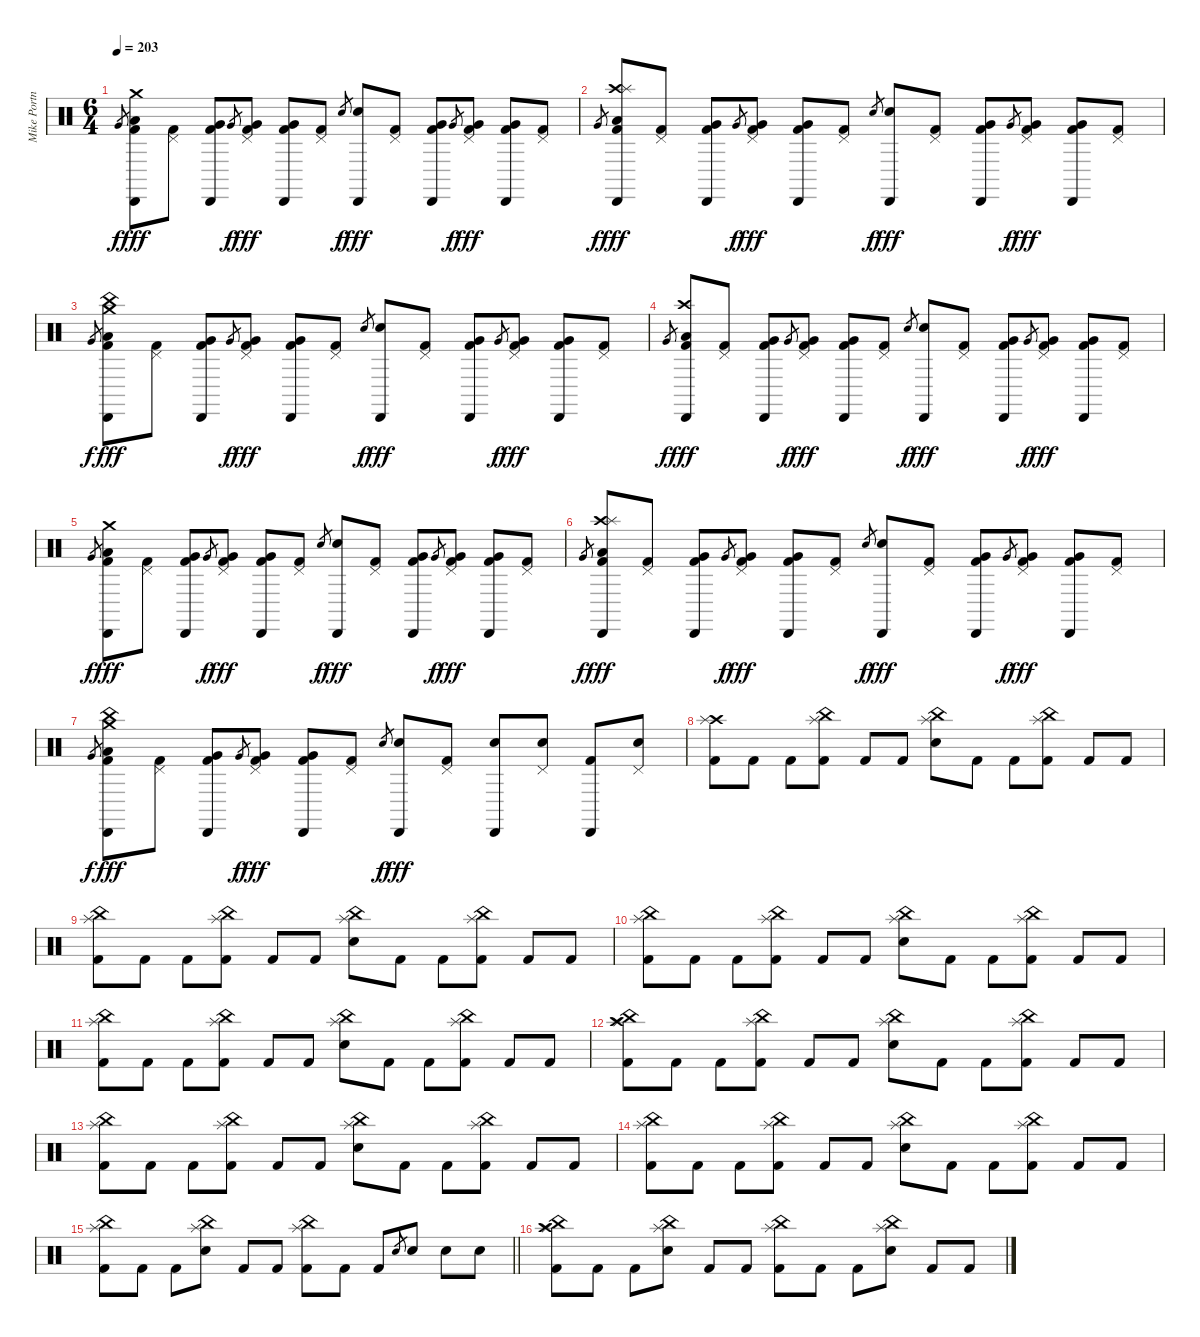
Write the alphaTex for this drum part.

\track ("Mike Portnoy" "Mike Portn") {instrument percussion}
\staff {score}
\articulation defaults
\ts (6 4)
\tempo 203
\clef neutral
\ks c "Very Low Tom (hit)".8{gr dy f}
("Crash medium (hit)" "Cabasa (hit)" "Low Tom (hit)" "Kick (hit) 2").8{dy fff} ("Pedal Hi-Hat (hit)" "Kick (hit) 2").8 ("Cabasa (hit)" "Very Low Tom (hit)" "Kick (hit) 2").8 "Very Low Tom (hit)".8{gr dy f} ("Pedal Hi-Hat (hit)" "Very Low Tom (hit)" "Kick (hit) 2").8{dy fff} ("Cabasa (hit)" "Very Low Tom (hit)" "Kick (hit) 2").8 ("Pedal Hi-Hat (hit)" "Kick (hit) 2").8 "Electric Snare (hit)".8{gr dy f} ("Cabasa (hit)" "Electric Snare (hit)").8{dy fff} ("Pedal Hi-Hat (hit)" "Kick (hit) 2").8 ("Cabasa (hit)" "Very Low Tom (hit)" "Kick (hit) 2").8 "Very Low Tom (hit)".8{gr dy f} ("Pedal Hi-Hat (hit)" "Very Low Tom (hit)" "Kick (hit) 2").8{dy fff} ("Cabasa (hit)" "Very Low Tom (hit)" "Kick (hit) 2").8 ("Pedal Hi-Hat (hit)" "Kick (hit) 2").8 |
"Very Low Tom (hit)".8{gr dy f} ("Crash high (hit)" "Splash (hit)" "Cabasa (hit)" "Low Tom (hit)" "Kick (hit) 2").8{dy fff} ("Pedal Hi-Hat (hit)" "Kick (hit) 2").8 ("Cabasa (hit)" "Very Low Tom (hit)" "Kick (hit) 2").8 "Very Low Tom (hit)".8{gr dy f} ("Pedal Hi-Hat (hit)" "Very Low Tom (hit)" "Kick (hit) 2").8{dy fff} ("Cabasa (hit)" "Very Low Tom (hit)" "Kick (hit) 2").8 ("Pedal Hi-Hat (hit)" "Kick (hit) 2").8 "Electric Snare (hit)".8{gr dy f} ("Cabasa (hit)" "Electric Snare (hit)").8{dy fff} ("Pedal Hi-Hat (hit)" "Kick (hit) 2").8 ("Cabasa (hit)" "Very Low Tom (hit)" "Kick (hit) 2").8 "Very Low Tom (hit)".8{gr dy f} ("Pedal Hi-Hat (hit)" "Very Low Tom (hit)" "Kick (hit) 2").8{dy fff} ("Cabasa (hit)" "Very Low Tom (hit)" "Kick (hit) 2").8 ("Pedal Hi-Hat (hit)" "Kick (hit) 2").8 |
"Very Low Tom (hit)".8{gr dy f} ("China (hit)" "Crash medium (hit)" "Cabasa (hit)" "Low Tom (hit)" "Kick (hit) 2").8{dy fff} ("Pedal Hi-Hat (hit)" "Kick (hit) 2").8 ("Cabasa (hit)" "Very Low Tom (hit)" "Kick (hit) 2").8 "Very Low Tom (hit)".8{gr dy f} ("Pedal Hi-Hat (hit)" "Very Low Tom (hit)" "Kick (hit) 2").8{dy fff} ("Cabasa (hit)" "Very Low Tom (hit)" "Kick (hit) 2").8 ("Pedal Hi-Hat (hit)" "Kick (hit) 2").8 "Electric Snare (hit)".8{gr dy f} ("Cabasa (hit)" "Electric Snare (hit)").8{dy fff} ("Pedal Hi-Hat (hit)" "Kick (hit) 2").8 ("Cabasa (hit)" "Very Low Tom (hit)" "Kick (hit) 2").8 "Very Low Tom (hit)".8{gr dy f} ("Pedal Hi-Hat (hit)" "Very Low Tom (hit)" "Kick (hit) 2").8{dy fff} ("Cabasa (hit)" "Very Low Tom (hit)" "Kick (hit) 2").8 ("Pedal Hi-Hat (hit)" "Kick (hit) 2").8 |
"Very Low Tom (hit)".8{gr dy f} ("Crash high (hit)" "Cabasa (hit)" "Low Tom (hit)" "Kick (hit) 2").8{dy fff} ("Pedal Hi-Hat (hit)" "Kick (hit) 2").8 ("Cabasa (hit)" "Very Low Tom (hit)" "Kick (hit) 2").8 "Very Low Tom (hit)".8{gr dy f} ("Pedal Hi-Hat (hit)" "Very Low Tom (hit)" "Kick (hit) 2").8{dy fff} ("Cabasa (hit)" "Very Low Tom (hit)" "Kick (hit) 2").8 ("Pedal Hi-Hat (hit)" "Kick (hit) 2").8 "Electric Snare (hit)".8{gr dy f} ("Cabasa (hit)" "Electric Snare (hit)").8{dy fff} ("Pedal Hi-Hat (hit)" "Kick (hit) 2").8 ("Cabasa (hit)" "Very Low Tom (hit)" "Kick (hit) 2").8 "Very Low Tom (hit)".8{gr dy f} ("Pedal Hi-Hat (hit)" "Very Low Tom (hit)" "Kick (hit) 2").8{dy fff} ("Cabasa (hit)" "Very Low Tom (hit)" "Kick (hit) 2").8 ("Pedal Hi-Hat (hit)" "Kick (hit) 2").8 |
"Very Low Tom (hit)".8{gr dy f} ("Crash medium (hit)" "Cabasa (hit)" "Low Tom (hit)" "Kick (hit) 2").8{dy fff} ("Pedal Hi-Hat (hit)" "Kick (hit) 2").8 ("Cabasa (hit)" "Very Low Tom (hit)" "Kick (hit) 2").8 "Very Low Tom (hit)".8{gr dy f} ("Pedal Hi-Hat (hit)" "Very Low Tom (hit)" "Kick (hit) 2").8{dy fff} ("Cabasa (hit)" "Very Low Tom (hit)" "Kick (hit) 2").8 ("Pedal Hi-Hat (hit)" "Kick (hit) 2").8 "Electric Snare (hit)".8{gr dy f} ("Cabasa (hit)" "Electric Snare (hit)").8{dy fff} ("Pedal Hi-Hat (hit)" "Kick (hit) 2").8 ("Cabasa (hit)" "Very Low Tom (hit)" "Kick (hit) 2").8 "Very Low Tom (hit)".8{gr dy f} ("Pedal Hi-Hat (hit)" "Very Low Tom (hit)" "Kick (hit) 2").8{dy fff} ("Cabasa (hit)" "Very Low Tom (hit)" "Kick (hit) 2").8 ("Pedal Hi-Hat (hit)" "Kick (hit) 2").8 |
"Very Low Tom (hit)".8{gr dy f} ("Crash high (hit)" "Splash (hit)" "Cabasa (hit)" "Low Tom (hit)" "Kick (hit) 2").8{dy fff} ("Pedal Hi-Hat (hit)" "Kick (hit) 2").8 ("Cabasa (hit)" "Very Low Tom (hit)" "Kick (hit) 2").8 "Very Low Tom (hit)".8{gr dy f} ("Pedal Hi-Hat (hit)" "Very Low Tom (hit)" "Kick (hit) 2").8{dy fff} ("Cabasa (hit)" "Very Low Tom (hit)" "Kick (hit) 2").8 ("Pedal Hi-Hat (hit)" "Kick (hit) 2").8 "Electric Snare (hit)".8{gr dy f} ("Cabasa (hit)" "Electric Snare (hit)").8{dy fff} ("Pedal Hi-Hat (hit)" "Kick (hit) 2").8 ("Cabasa (hit)" "Very Low Tom (hit)" "Kick (hit) 2").8 "Very Low Tom (hit)".8{gr dy f} ("Pedal Hi-Hat (hit)" "Very Low Tom (hit)" "Kick (hit) 2").8{dy fff} ("Cabasa (hit)" "Very Low Tom (hit)" "Kick (hit) 2").8 ("Pedal Hi-Hat (hit)" "Kick (hit) 2").8 |
"Very Low Tom (hit)".8{gr dy f} ("China (hit)" "Crash medium (hit)" "Cabasa (hit)" "Low Tom (hit)" "Kick (hit) 2").8{dy fff} ("Pedal Hi-Hat (hit)" "Kick (hit) 2").8 ("Cabasa (hit)" "Very Low Tom (hit)" "Kick (hit) 2").8 "Very Low Tom (hit)".8{gr dy f} ("Pedal Hi-Hat (hit)" "Very Low Tom (hit)" "Kick (hit) 2").8{dy fff} ("Cabasa (hit)" "Very Low Tom (hit)" "Kick (hit) 2").8 ("Pedal Hi-Hat (hit)" "Kick (hit) 2").8 "Electric Snare (hit)".8{gr dy f} ("Cabasa (hit)" "Electric Snare (hit)").8{dy fff} ("Pedal Hi-Hat (hit)" "Kick (hit) 2").8 ("Cabasa (hit)" "Electric Snare (hit)").8 ("Pedal Hi-Hat (hit)" "Electric Snare (hit)").8 ("Cabasa (hit)" "Kick (hit) 2").8 ("Pedal Hi-Hat (hit)" "Electric Snare (hit)").8 |
("Crash high (hit)" "Splash (hit)" "Kick (hit) 2").8 "Kick (hit) 2".8 "Kick (hit) 2".8 ("China (hit)" "Splash (hit)" "Kick (hit) 2").8 "Kick (hit) 2".8 "Kick (hit) 2".8 ("China (hit)" "Splash (hit)" "Electric Snare (hit)").8 "Kick (hit) 2".8 "Kick (hit) 2".8 ("China (hit)" "Splash (hit)" "Kick (hit) 2").8 "Kick (hit) 2".8 "Kick (hit) 2".8 |
("China (hit)" "Splash (hit)" "Kick (hit) 2").8 "Kick (hit) 2".8 "Kick (hit) 2".8 ("China (hit)" "Splash (hit)" "Kick (hit) 2").8 "Kick (hit) 2".8 "Kick (hit) 2".8 ("China (hit)" "Splash (hit)" "Electric Snare (hit)").8 "Kick (hit) 2".8 "Kick (hit) 2".8 ("China (hit)" "Splash (hit)" "Kick (hit) 2").8 "Kick (hit) 2".8 "Kick (hit) 2".8 |
("China (hit)" "Splash (hit)" "Kick (hit) 2").8 "Kick (hit) 2".8 "Kick (hit) 2".8 ("China (hit)" "Splash (hit)" "Kick (hit) 2").8 "Kick (hit) 2".8 "Kick (hit) 2".8 ("China (hit)" "Splash (hit)" "Electric Snare (hit)").8 "Kick (hit) 2".8 "Kick (hit) 2".8 ("China (hit)" "Splash (hit)" "Kick (hit) 2").8 "Kick (hit) 2".8 "Kick (hit) 2".8 |
("China (hit)" "Splash (hit)" "Kick (hit) 2").8 "Kick (hit) 2".8 "Kick (hit) 2".8 ("China (hit)" "Splash (hit)" "Kick (hit) 2").8 "Kick (hit) 2".8 "Kick (hit) 2".8 ("China (hit)" "Splash (hit)" "Electric Snare (hit)").8 "Kick (hit) 2".8 "Kick (hit) 2".8 ("China (hit)" "Splash (hit)" "Kick (hit) 2").8 "Kick (hit) 2".8 "Kick (hit) 2".8 |
("Crash high (hit)" "China (hit)" "Splash (hit)" "Kick (hit) 2").8 "Kick (hit) 2".8 "Kick (hit) 2".8 ("China (hit)" "Splash (hit)" "Kick (hit) 2").8 "Kick (hit) 2".8 "Kick (hit) 2".8 ("China (hit)" "Splash (hit)" "Electric Snare (hit)").8 "Kick (hit) 2".8 "Kick (hit) 2".8 ("China (hit)" "Splash (hit)" "Kick (hit) 2").8 "Kick (hit) 2".8 "Kick (hit) 2".8 |
("China (hit)" "Splash (hit)" "Kick (hit) 2").8 "Kick (hit) 2".8 "Kick (hit) 2".8 ("China (hit)" "Splash (hit)" "Kick (hit) 2").8 "Kick (hit) 2".8 "Kick (hit) 2".8 ("China (hit)" "Splash (hit)" "Electric Snare (hit)").8 "Kick (hit) 2".8 "Kick (hit) 2".8 ("China (hit)" "Splash (hit)" "Kick (hit) 2").8 "Kick (hit) 2".8 "Kick (hit) 2".8 |
("China (hit)" "Splash (hit)" "Kick (hit) 2").8 "Kick (hit) 2".8 "Kick (hit) 2".8 ("China (hit)" "Splash (hit)" "Kick (hit) 2").8 "Kick (hit) 2".8 "Kick (hit) 2".8 ("China (hit)" "Splash (hit)" "Electric Snare (hit)").8 "Kick (hit) 2".8 "Kick (hit) 2".8 ("China (hit)" "Splash (hit)" "Kick (hit) 2").8 "Kick (hit) 2".8 "Kick (hit) 2".8 |
\barLineRight lightlight
("China (hit)" "Splash (hit)" "Kick (hit) 2").8 "Kick (hit) 2".8 "Kick (hit) 2".8 ("China (hit)" "Splash (hit)" "Electric Snare (hit)").8 "Kick (hit) 2".8 "Kick (hit) 2".8 ("China (hit)" "Splash (hit)" "Kick (hit) 2").8 "Kick (hit) 2".8 "Kick (hit) 2".8 "Electric Snare (hit)".8{gr} "Electric Snare (hit)".8 "Electric Snare (hit)".8 "Electric Snare (hit)".8 |
("Crash high (hit)" "China (hit)" "Splash (hit)" "Kick (hit) 2").8 "Kick (hit) 2".8 "Kick (hit) 2".8 ("China (hit)" "Splash (hit)" "Electric Snare (hit)").8 "Kick (hit) 2".8 "Kick (hit) 2".8 ("China (hit)" "Splash (hit)" "Kick (hit) 2").8 "Kick (hit) 2".8 "Kick (hit) 2".8 ("China (hit)" "Splash (hit)" "Electric Snare (hit)").8 "Kick (hit) 2".8 "Kick (hit) 2".8
